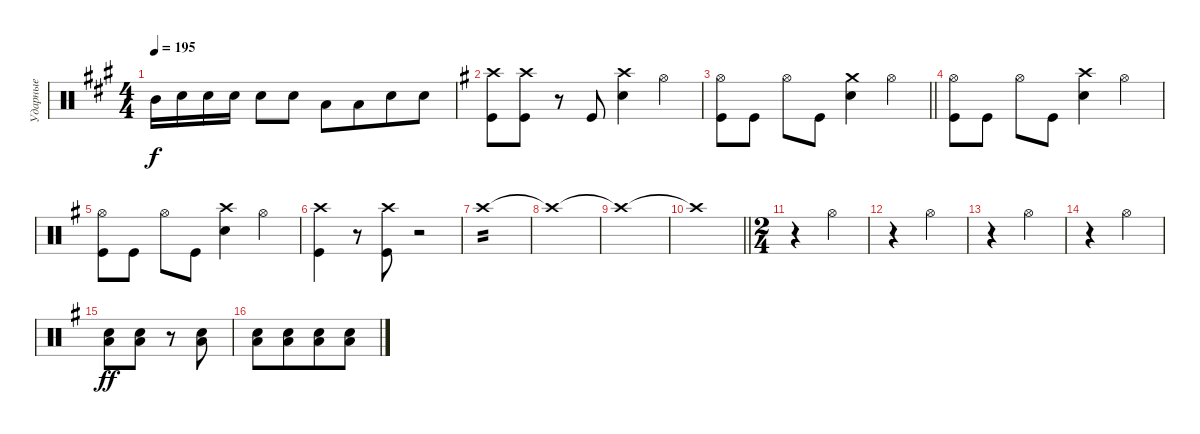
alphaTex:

\track ("Ударные" "Ударные") {instrument percussion}
\staff {score}
\articulation defaults
\ts (4 4)
\tempo 195
\clef neutral
\ks f#minor "Mid Tom (hit)".16{dy f} "Snare (hit) 2".16 "Snare (hit) 2".16 "Snare (hit) 2".16 "Snare (hit) 2".8 "Snare (hit) 2".8 "Low Tom (hit)".8 "Low Tom (hit)".8{beam merge} "Snare (hit) 2".8 "Snare (hit) 2".8
|
\ks eminor
("Kick (hit)" "Crash high (hit)").8 ("Kick (hit)" "Crash high (hit)").8 r.8 "Kick (hit)".8 ("Snare (hit) 2" "Crash high (hit)").4 "Hi-Hat (open)".4 |
\barLineRight lightlight
("Hi-Hat (open)" "Kick (hit)").8 "Kick (hit)".8 "Hi-Hat (open)".8 "Kick (hit)".8 ("Snare (hit) 2" "Crash medium (hit)").4 "Hi-Hat (open)".4 |
\section ("" "")
("Hi-Hat (open)" "Kick (hit)").8 "Kick (hit)".8 "Hi-Hat (open)".8 "Kick (hit)".8 ("Snare (hit) 2" "Crash high (hit)").4 "Hi-Hat (open)".4 |
("Hi-Hat (open)" "Kick (hit)").8 "Kick (hit)".8 "Hi-Hat (open)".8 "Kick (hit)".8 ("Snare (hit) 2" "Crash high (hit)").4 "Hi-Hat (open)".4 |
("Kick (hit)" "Crash high (hit)").4 r.8 ("Kick (hit)" "Crash high (hit)").8 r.2 |
"Crash high (hit)".1{tp 2} |
"Crash high (hit)"{t}.1 |
"Crash high (hit)"{t}.1 |
\barLineRight lightlight "Crash high (hit)"{t}.1
|
\ts (2 4)
\section ("" "")
r.4 "Hi-Hat (open)".4 |
r.4 "Hi-Hat (open)".4 |
r.4 "Hi-Hat (open)".4 |
r.4 "Hi-Hat (open)".4 |
("Snare (hit) 2" "Low Floor Tom (hit)").8{dy ff} ("Snare (hit) 2" "Low Floor Tom (hit)").8 r.8 ("Snare (hit) 2" "Low Floor Tom (hit)").8 |
("Snare (hit) 2" "Low Floor Tom (hit)").8 ("Snare (hit) 2" "Low Floor Tom (hit)").8{beam merge} ("Snare (hit) 2" "Low Floor Tom (hit)").8 ("Snare (hit) 2" "Low Floor Tom (hit)").8
